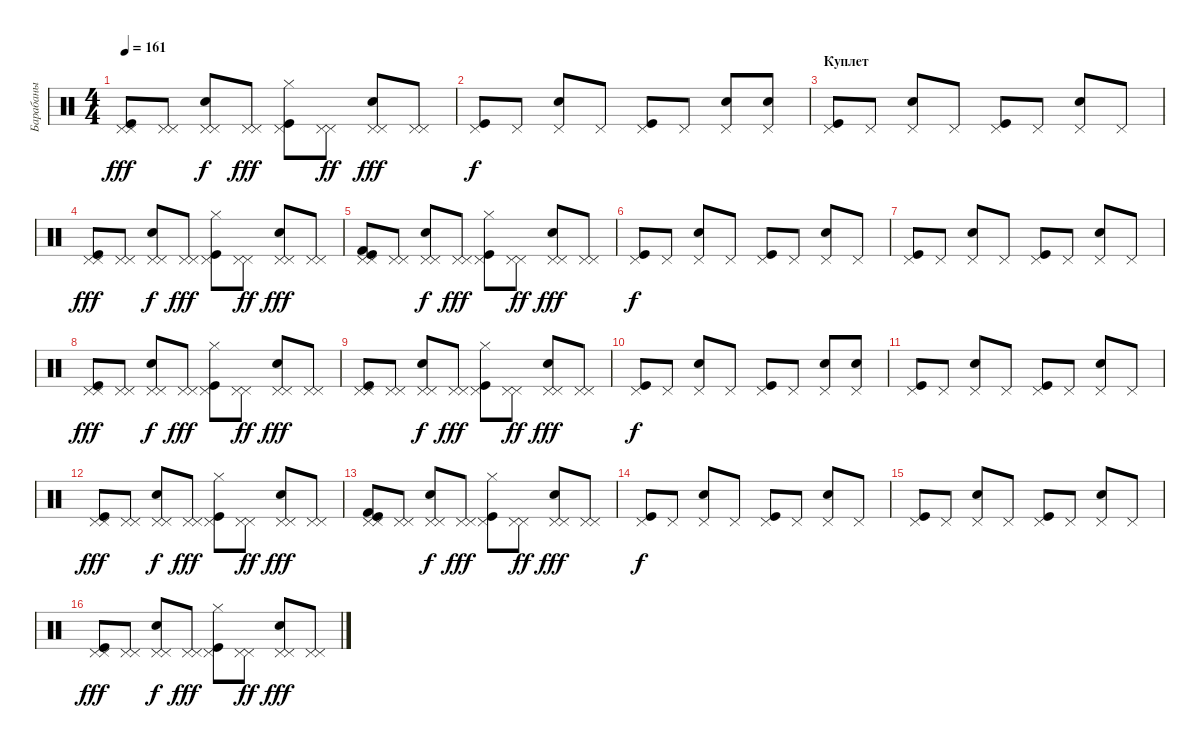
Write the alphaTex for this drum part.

\track ("Барабаны" "Барабаны") {instrument percussion}
\staff {score}
\articulation defaults
\ts (4 4)
\tempo 161
\clef neutral
\ks c
("Pedal Hi-Hat (hit)" "Pedal Hi-Hat (hit)" "Kick (hit)").8{dy fff} ("Pedal Hi-Hat (hit)" "Pedal Hi-Hat (hit)").8 ("Snare (hit) 2" "Pedal Hi-Hat (hit)" "Pedal Hi-Hat (hit)").8{dy f} ("Pedal Hi-Hat (hit)" "Pedal Hi-Hat (hit)").8{dy fff} ("Kick (hit)" "Pedal Hi-Hat (hit)" "Hi-Hat (closed)").8 ("Pedal Hi-Hat (hit)" "Pedal Hi-Hat (hit)").8{dy ff} ("Snare (hit) 2" "Pedal Hi-Hat (hit)" "Pedal Hi-Hat (hit)").8{dy fff} ("Pedal Hi-Hat (hit)" "Pedal Hi-Hat (hit)").8 |
("Kick (hit)" "Pedal Hi-Hat (hit)").8{dy f} "Pedal Hi-Hat (hit)".8 ("Snare (hit) 2" "Pedal Hi-Hat (hit)").8 "Pedal Hi-Hat (hit)".8 ("Kick (hit)" "Pedal Hi-Hat (hit)").8 "Pedal Hi-Hat (hit)".8 ("Snare (hit) 2" "Pedal Hi-Hat (hit)").8 ("Snare (hit) 2" "Pedal Hi-Hat (hit)").8 |
\section ("" "Куплет")
("Kick (hit)" "Pedal Hi-Hat (hit)").8 "Pedal Hi-Hat (hit)".8 ("Snare (hit) 2" "Pedal Hi-Hat (hit)").8 "Pedal Hi-Hat (hit)".8 ("Kick (hit)" "Pedal Hi-Hat (hit)").8 "Pedal Hi-Hat (hit)".8 ("Snare (hit) 2" "Pedal Hi-Hat (hit)").8 "Pedal Hi-Hat (hit)".8 |
("Pedal Hi-Hat (hit)" "Kick (hit)" "Pedal Hi-Hat (hit)").8{dy fff} ("Pedal Hi-Hat (hit)" "Pedal Hi-Hat (hit)").8 ("Snare (hit) 2" "Pedal Hi-Hat (hit)" "Pedal Hi-Hat (hit)").8{dy f} ("Pedal Hi-Hat (hit)" "Pedal Hi-Hat (hit)").8{dy fff} ("Kick (hit)" "Hi-Hat (closed)" "Pedal Hi-Hat (hit)").8 ("Pedal Hi-Hat (hit)" "Pedal Hi-Hat (hit)").8{dy ff} ("Snare (hit) 2" "Pedal Hi-Hat (hit)" "Pedal Hi-Hat (hit)").8{dy fff} ("Pedal Hi-Hat (hit)" "Pedal Hi-Hat (hit)").8 |
("Pedal Hi-Hat (hit)" "Pedal Hi-Hat (hit)" "Kick (hit)" "Kick (hit) 2").8 ("Pedal Hi-Hat (hit)" "Pedal Hi-Hat (hit)").8 ("Snare (hit) 2" "Pedal Hi-Hat (hit)" "Pedal Hi-Hat (hit)").8{dy f} ("Pedal Hi-Hat (hit)" "Pedal Hi-Hat (hit)").8{dy fff} ("Kick (hit)" "Pedal Hi-Hat (hit)" "Hi-Hat (closed)").8 ("Pedal Hi-Hat (hit)" "Pedal Hi-Hat (hit)").8{dy ff} ("Snare (hit) 2" "Pedal Hi-Hat (hit)" "Pedal Hi-Hat (hit)").8{dy fff} ("Pedal Hi-Hat (hit)" "Pedal Hi-Hat (hit)").8 |
("Kick (hit)" "Pedal Hi-Hat (hit)").8{dy f} "Pedal Hi-Hat (hit)".8 ("Snare (hit) 2" "Pedal Hi-Hat (hit)").8 "Pedal Hi-Hat (hit)".8 ("Kick (hit)" "Pedal Hi-Hat (hit)").8 "Pedal Hi-Hat (hit)".8 ("Snare (hit) 2" "Pedal Hi-Hat (hit)").8 "Pedal Hi-Hat (hit)".8 |
("Kick (hit)" "Pedal Hi-Hat (hit)").8 "Pedal Hi-Hat (hit)".8 ("Snare (hit) 2" "Pedal Hi-Hat (hit)").8 "Pedal Hi-Hat (hit)".8 ("Kick (hit)" "Pedal Hi-Hat (hit)").8 "Pedal Hi-Hat (hit)".8 ("Snare (hit) 2" "Pedal Hi-Hat (hit)").8 "Pedal Hi-Hat (hit)".8 |
("Pedal Hi-Hat (hit)" "Kick (hit)" "Pedal Hi-Hat (hit)").8{dy fff} ("Pedal Hi-Hat (hit)" "Pedal Hi-Hat (hit)").8 ("Snare (hit) 2" "Pedal Hi-Hat (hit)" "Pedal Hi-Hat (hit)").8{dy f} ("Pedal Hi-Hat (hit)" "Pedal Hi-Hat (hit)").8{dy fff} ("Kick (hit)" "Hi-Hat (closed)" "Pedal Hi-Hat (hit)").8 ("Pedal Hi-Hat (hit)" "Pedal Hi-Hat (hit)").8{dy ff} ("Snare (hit) 2" "Pedal Hi-Hat (hit)" "Pedal Hi-Hat (hit)").8{dy fff} ("Pedal Hi-Hat (hit)" "Pedal Hi-Hat (hit)").8 |
("Kick (hit)" "Pedal Hi-Hat (hit)" "Pedal Hi-Hat (hit)").8 ("Pedal Hi-Hat (hit)" "Pedal Hi-Hat (hit)").8 ("Snare (hit) 2" "Pedal Hi-Hat (hit)" "Pedal Hi-Hat (hit)").8{dy f} ("Pedal Hi-Hat (hit)" "Pedal Hi-Hat (hit)").8{dy fff} ("Kick (hit)" "Pedal Hi-Hat (hit)" "Hi-Hat (closed)").8 ("Pedal Hi-Hat (hit)" "Pedal Hi-Hat (hit)").8{dy ff} ("Snare (hit) 2" "Pedal Hi-Hat (hit)" "Pedal Hi-Hat (hit)").8{dy fff} ("Pedal Hi-Hat (hit)" "Pedal Hi-Hat (hit)").8 |
("Pedal Hi-Hat (hit)" "Kick (hit)").8{dy f} "Pedal Hi-Hat (hit)".8 ("Snare (hit) 2" "Pedal Hi-Hat (hit)").8 "Pedal Hi-Hat (hit)".8 ("Kick (hit)" "Pedal Hi-Hat (hit)").8 "Pedal Hi-Hat (hit)".8 ("Snare (hit) 2" "Pedal Hi-Hat (hit)").8 ("Snare (hit) 2" "Pedal Hi-Hat (hit)").8 |
("Kick (hit)" "Pedal Hi-Hat (hit)").8 "Pedal Hi-Hat (hit)".8 ("Snare (hit) 2" "Pedal Hi-Hat (hit)").8 "Pedal Hi-Hat (hit)".8 ("Kick (hit)" "Pedal Hi-Hat (hit)").8 "Pedal Hi-Hat (hit)".8 ("Snare (hit) 2" "Pedal Hi-Hat (hit)").8 "Pedal Hi-Hat (hit)".8 |
("Pedal Hi-Hat (hit)" "Kick (hit)" "Pedal Hi-Hat (hit)").8{dy fff} ("Pedal Hi-Hat (hit)" "Pedal Hi-Hat (hit)").8 ("Snare (hit) 2" "Pedal Hi-Hat (hit)" "Pedal Hi-Hat (hit)").8{dy f} ("Pedal Hi-Hat (hit)" "Pedal Hi-Hat (hit)").8{dy fff} ("Kick (hit)" "Hi-Hat (closed)" "Pedal Hi-Hat (hit)").8 ("Pedal Hi-Hat (hit)" "Pedal Hi-Hat (hit)").8{dy ff} ("Snare (hit) 2" "Pedal Hi-Hat (hit)" "Pedal Hi-Hat (hit)").8{dy fff} ("Pedal Hi-Hat (hit)" "Pedal Hi-Hat (hit)").8 |
("Kick (hit) 2" "Pedal Hi-Hat (hit)" "Pedal Hi-Hat (hit)" "Kick (hit)").8 ("Pedal Hi-Hat (hit)" "Pedal Hi-Hat (hit)").8 ("Snare (hit) 2" "Pedal Hi-Hat (hit)" "Pedal Hi-Hat (hit)").8{dy f} ("Pedal Hi-Hat (hit)" "Pedal Hi-Hat (hit)").8{dy fff} ("Kick (hit)" "Pedal Hi-Hat (hit)" "Hi-Hat (closed)").8 ("Pedal Hi-Hat (hit)" "Pedal Hi-Hat (hit)").8{dy ff} ("Snare (hit) 2" "Pedal Hi-Hat (hit)" "Pedal Hi-Hat (hit)").8{dy fff} ("Pedal Hi-Hat (hit)" "Pedal Hi-Hat (hit)").8 |
("Pedal Hi-Hat (hit)" "Kick (hit)").8{dy f} "Pedal Hi-Hat (hit)".8 ("Snare (hit) 2" "Pedal Hi-Hat (hit)").8 "Pedal Hi-Hat (hit)".8 ("Kick (hit)" "Pedal Hi-Hat (hit)").8 "Pedal Hi-Hat (hit)".8 ("Snare (hit) 2" "Pedal Hi-Hat (hit)").8 "Pedal Hi-Hat (hit)".8 |
("Kick (hit)" "Pedal Hi-Hat (hit)").8 "Pedal Hi-Hat (hit)".8 ("Snare (hit) 2" "Pedal Hi-Hat (hit)").8 "Pedal Hi-Hat (hit)".8 ("Kick (hit)" "Pedal Hi-Hat (hit)").8 "Pedal Hi-Hat (hit)".8 ("Snare (hit) 2" "Pedal Hi-Hat (hit)").8 "Pedal Hi-Hat (hit)".8 |
("Pedal Hi-Hat (hit)" "Kick (hit)" "Pedal Hi-Hat (hit)").8{dy fff} ("Pedal Hi-Hat (hit)" "Pedal Hi-Hat (hit)").8 ("Snare (hit) 2" "Pedal Hi-Hat (hit)" "Pedal Hi-Hat (hit)").8{dy f} ("Pedal Hi-Hat (hit)" "Pedal Hi-Hat (hit)").8{dy fff} ("Kick (hit)" "Hi-Hat (closed)" "Pedal Hi-Hat (hit)").8 ("Pedal Hi-Hat (hit)" "Pedal Hi-Hat (hit)").8{dy ff} ("Snare (hit) 2" "Pedal Hi-Hat (hit)" "Pedal Hi-Hat (hit)").8{dy fff} ("Pedal Hi-Hat (hit)" "Pedal Hi-Hat (hit)").8
